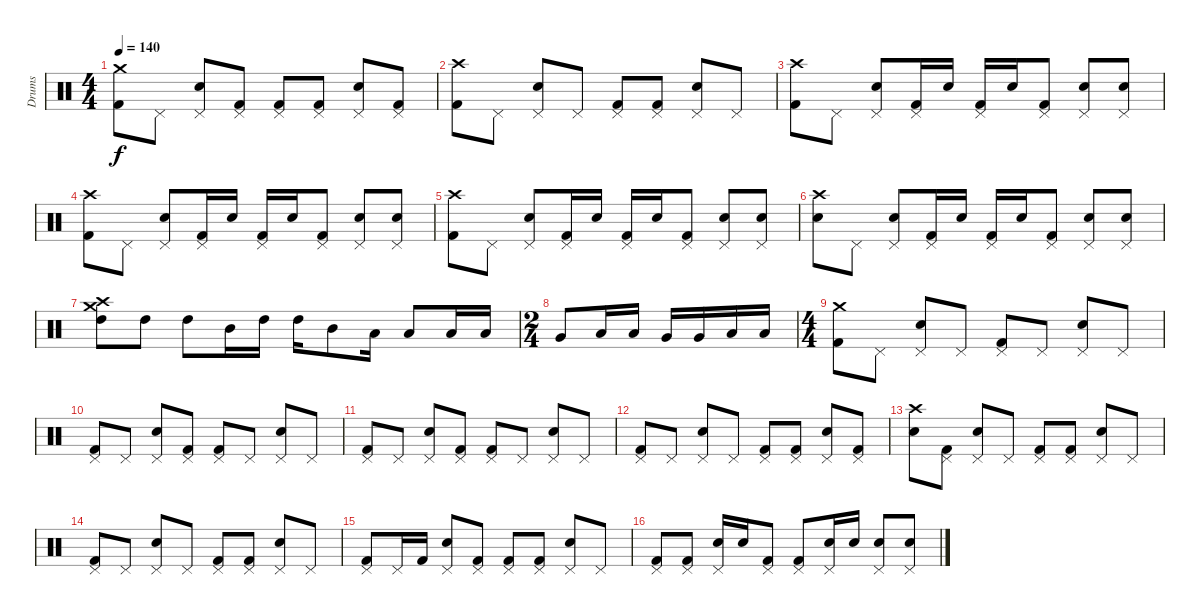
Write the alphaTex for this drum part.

\track ("Drums" "Drums") {instrument percussion}
\staff {score}
\articulation defaults
\ts (4 4)
\tempo 140
\clef neutral
\ks c
("Crash medium (hit)" "Kick (hit) 2").8{dy f} "Pedal Hi-Hat (hit)".8 ("Pedal Hi-Hat (hit)" "Electric Snare (hit)").8 ("Pedal Hi-Hat (hit)" "Kick (hit) 2").8 ("Pedal Hi-Hat (hit)" "Kick (hit) 2").8 ("Pedal Hi-Hat (hit)" "Kick (hit) 2").8 ("Pedal Hi-Hat (hit)" "Electric Snare (hit)").8 ("Pedal Hi-Hat (hit)" "Kick (hit) 2").8 |
("Crash high (hit)" "Kick (hit) 2").8 "Pedal Hi-Hat (hit)".8 ("Pedal Hi-Hat (hit)" "Electric Snare (hit)").8 "Pedal Hi-Hat (hit)".8 ("Pedal Hi-Hat (hit)" "Kick (hit) 2").8 ("Pedal Hi-Hat (hit)" "Kick (hit) 2").8 ("Pedal Hi-Hat (hit)" "Electric Snare (hit)").8 "Pedal Hi-Hat (hit)".8 |
("Crash high (hit)" "Kick (hit) 2").8 "Pedal Hi-Hat (hit)".8 ("Pedal Hi-Hat (hit)" "Electric Snare (hit)").8 ("Pedal Hi-Hat (hit)" "Kick (hit) 2").16 "Electric Snare (hit)".16 ("Pedal Hi-Hat (hit)" "Kick (hit) 2").16 "Electric Snare (hit)".16 ("Pedal Hi-Hat (hit)" "Kick (hit) 2").8 ("Pedal Hi-Hat (hit)" "Electric Snare (hit)").8 ("Pedal Hi-Hat (hit)" "Electric Snare (hit)").8 |
("Crash high (hit)" "Kick (hit) 2").8 "Pedal Hi-Hat (hit)".8 ("Pedal Hi-Hat (hit)" "Electric Snare (hit)").8 ("Pedal Hi-Hat (hit)" "Kick (hit) 2").16 "Electric Snare (hit)".16 ("Pedal Hi-Hat (hit)" "Kick (hit) 2").16 "Electric Snare (hit)".16 ("Pedal Hi-Hat (hit)" "Kick (hit) 2").8 ("Pedal Hi-Hat (hit)" "Electric Snare (hit)").8 ("Pedal Hi-Hat (hit)" "Electric Snare (hit)").8 |
("Crash high (hit)" "Kick (hit) 2").8 "Pedal Hi-Hat (hit)".8 ("Pedal Hi-Hat (hit)" "Electric Snare (hit)").8 ("Pedal Hi-Hat (hit)" "Kick (hit) 2").16 "Electric Snare (hit)".16 ("Pedal Hi-Hat (hit)" "Kick (hit) 2").16 "Electric Snare (hit)".16 ("Pedal Hi-Hat (hit)" "Kick (hit) 2").8 ("Pedal Hi-Hat (hit)" "Electric Snare (hit)").8 ("Pedal Hi-Hat (hit)" "Electric Snare (hit)").8 |
("Crash high (hit)" "Electric Snare (hit)").8 "Pedal Hi-Hat (hit)".8 ("Pedal Hi-Hat (hit)" "Electric Snare (hit)").8 ("Pedal Hi-Hat (hit)" "Kick (hit) 2").16 "Electric Snare (hit)".16 ("Pedal Hi-Hat (hit)" "Kick (hit) 2").16 "Electric Snare (hit)".16 ("Pedal Hi-Hat (hit)" "Kick (hit) 2").8 ("Pedal Hi-Hat (hit)" "Electric Snare (hit)").8 ("Pedal Hi-Hat (hit)" "Electric Snare (hit)").8 |
("Crash high (hit)" "Crash medium (hit)" "High Tom (hit)").8 "High Tom (hit)".8 "High Tom (hit)".8 "Mid Tom (hit)".16 "High Tom (hit)".16 "High Tom (hit)".16 "Mid Tom (hit)".8 "Low Tom (hit)".16 "Low Tom (hit)".8 "Low Tom (hit)".16 "Low Tom (hit)".16 |
\ts (2 4)
"Very Low Tom (hit)".8 "Low Floor Tom (hit)".16 "Low Floor Tom (hit)".16 "Very Low Tom (hit)".16 "Very Low Tom (hit)".16 "Low Floor Tom (hit)".16 "Low Floor Tom (hit)".16 |
\ts (4 4)
("Crash medium (hit)" "Kick (hit) 2").8 "Pedal Hi-Hat (hit)".8 ("Pedal Hi-Hat (hit)" "Electric Snare (hit)").8 "Pedal Hi-Hat (hit)".8 ("Pedal Hi-Hat (hit)" "Kick (hit) 2").8 "Pedal Hi-Hat (hit)".8 ("Pedal Hi-Hat (hit)" "Electric Snare (hit)").8 "Pedal Hi-Hat (hit)".8 |
("Pedal Hi-Hat (hit)" "Kick (hit) 2").8 "Pedal Hi-Hat (hit)".8 ("Pedal Hi-Hat (hit)" "Electric Snare (hit)").8 ("Pedal Hi-Hat (hit)" "Kick (hit) 2").8 ("Pedal Hi-Hat (hit)" "Kick (hit) 2").8 "Pedal Hi-Hat (hit)".8 ("Pedal Hi-Hat (hit)" "Electric Snare (hit)").8 "Pedal Hi-Hat (hit)".8 |
("Pedal Hi-Hat (hit)" "Kick (hit) 2").8 "Pedal Hi-Hat (hit)".8 ("Pedal Hi-Hat (hit)" "Electric Snare (hit)").8 ("Pedal Hi-Hat (hit)" "Kick (hit) 2").8 ("Pedal Hi-Hat (hit)" "Kick (hit) 2").8 "Pedal Hi-Hat (hit)".8 ("Pedal Hi-Hat (hit)" "Electric Snare (hit)").8 "Pedal Hi-Hat (hit)".8 |
("Pedal Hi-Hat (hit)" "Kick (hit) 2").8 "Pedal Hi-Hat (hit)".8 ("Pedal Hi-Hat (hit)" "Electric Snare (hit)").8 "Pedal Hi-Hat (hit)".8 ("Pedal Hi-Hat (hit)" "Kick (hit) 2").8 ("Pedal Hi-Hat (hit)" "Kick (hit) 2").8 ("Pedal Hi-Hat (hit)" "Electric Snare (hit)").8 ("Pedal Hi-Hat (hit)" "Kick (hit) 2").8 |
("Crash high (hit)" "Electric Snare (hit)").8 ("Pedal Hi-Hat (hit)" "Kick (hit) 2").8 ("Pedal Hi-Hat (hit)" "Electric Snare (hit)").8 "Pedal Hi-Hat (hit)".8 ("Pedal Hi-Hat (hit)" "Kick (hit) 2").8 ("Pedal Hi-Hat (hit)" "Kick (hit) 2").8 ("Pedal Hi-Hat (hit)" "Electric Snare (hit)").8 "Pedal Hi-Hat (hit)".8 |
("Pedal Hi-Hat (hit)" "Kick (hit) 2").8 "Pedal Hi-Hat (hit)".8 ("Pedal Hi-Hat (hit)" "Electric Snare (hit)").8 "Pedal Hi-Hat (hit)".8 ("Pedal Hi-Hat (hit)" "Kick (hit) 2").8 ("Pedal Hi-Hat (hit)" "Kick (hit) 2").8 ("Pedal Hi-Hat (hit)" "Electric Snare (hit)").8 "Pedal Hi-Hat (hit)".8 |
("Pedal Hi-Hat (hit)" "Kick (hit) 2").8 "Pedal Hi-Hat (hit)".16 "Kick (hit) 2".16 ("Pedal Hi-Hat (hit)" "Electric Snare (hit)").8 ("Pedal Hi-Hat (hit)" "Kick (hit) 2").8 ("Pedal Hi-Hat (hit)" "Kick (hit) 2").8 ("Pedal Hi-Hat (hit)" "Kick (hit) 2").8 ("Pedal Hi-Hat (hit)" "Electric Snare (hit)").8 "Pedal Hi-Hat (hit)".8 |
("Pedal Hi-Hat (hit)" "Kick (hit) 2").8 ("Pedal Hi-Hat (hit)" "Kick (hit) 2").8 ("Pedal Hi-Hat (hit)" "Electric Snare (hit)").16 "Electric Snare (hit)".16 ("Pedal Hi-Hat (hit)" "Kick (hit) 2").8 ("Pedal Hi-Hat (hit)" "Kick (hit) 2").8 ("Pedal Hi-Hat (hit)" "Electric Snare (hit)").16 "Electric Snare (hit)".16 ("Pedal Hi-Hat (hit)" "Electric Snare (hit)").8 ("Pedal Hi-Hat (hit)" "Electric Snare (hit)").8
